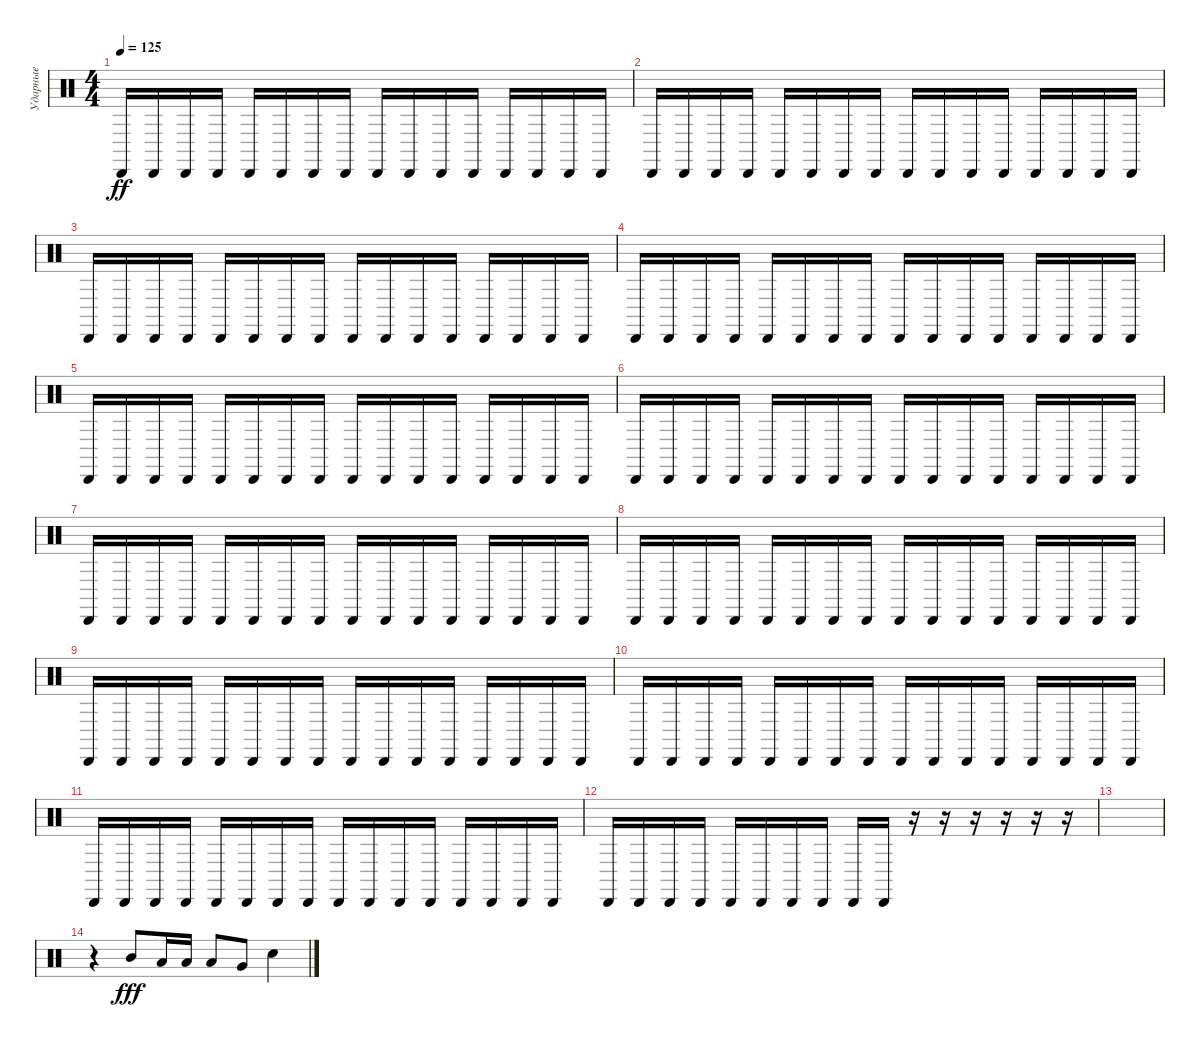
\track ("Ударные" "Ударные") {instrument percussion}
\staff {score}
\articulation defaults
\ts (4 4)
\tempo 125
\clef neutral
\ks c "Cabasa (hit)".16{dy ff} "Cabasa (hit)".16 "Cabasa (hit)".16 "Cabasa (hit)".16 "Cabasa (hit)".16 "Cabasa (hit)".16 "Cabasa (hit)".16 "Cabasa (hit)".16 "Cabasa (hit)".16 "Cabasa (hit)".16 "Cabasa (hit)".16 "Cabasa (hit)".16 "Cabasa (hit)".16 "Cabasa (hit)".16 "Cabasa (hit)".16 "Cabasa (hit)".16
|
"Cabasa (hit)".16 "Cabasa (hit)".16 "Cabasa (hit)".16 "Cabasa (hit)".16 "Cabasa (hit)".16 "Cabasa (hit)".16 "Cabasa (hit)".16 "Cabasa (hit)".16 "Cabasa (hit)".16 "Cabasa (hit)".16 "Cabasa (hit)".16 "Cabasa (hit)".16 "Cabasa (hit)".16 "Cabasa (hit)".16 "Cabasa (hit)".16 "Cabasa (hit)".16 |
"Cabasa (hit)".16 "Cabasa (hit)".16 "Cabasa (hit)".16 "Cabasa (hit)".16 "Cabasa (hit)".16 "Cabasa (hit)".16 "Cabasa (hit)".16 "Cabasa (hit)".16 "Cabasa (hit)".16 "Cabasa (hit)".16 "Cabasa (hit)".16 "Cabasa (hit)".16 "Cabasa (hit)".16 "Cabasa (hit)".16 "Cabasa (hit)".16 "Cabasa (hit)".16 |
"Cabasa (hit)".16 "Cabasa (hit)".16 "Cabasa (hit)".16 "Cabasa (hit)".16 "Cabasa (hit)".16 "Cabasa (hit)".16 "Cabasa (hit)".16 "Cabasa (hit)".16 "Cabasa (hit)".16 "Cabasa (hit)".16 "Cabasa (hit)".16 "Cabasa (hit)".16 "Cabasa (hit)".16 "Cabasa (hit)".16 "Cabasa (hit)".16 "Cabasa (hit)".16 |
"Cabasa (hit)".16 "Cabasa (hit)".16 "Cabasa (hit)".16 "Cabasa (hit)".16 "Cabasa (hit)".16 "Cabasa (hit)".16 "Cabasa (hit)".16 "Cabasa (hit)".16 "Cabasa (hit)".16 "Cabasa (hit)".16 "Cabasa (hit)".16 "Cabasa (hit)".16 "Cabasa (hit)".16 "Cabasa (hit)".16 "Cabasa (hit)".16 "Cabasa (hit)".16 |
"Cabasa (hit)".16 "Cabasa (hit)".16 "Cabasa (hit)".16 "Cabasa (hit)".16 "Cabasa (hit)".16 "Cabasa (hit)".16 "Cabasa (hit)".16 "Cabasa (hit)".16 "Cabasa (hit)".16 "Cabasa (hit)".16 "Cabasa (hit)".16 "Cabasa (hit)".16 "Cabasa (hit)".16 "Cabasa (hit)".16 "Cabasa (hit)".16 "Cabasa (hit)".16 |
"Cabasa (hit)".16 "Cabasa (hit)".16 "Cabasa (hit)".16 "Cabasa (hit)".16 "Cabasa (hit)".16 "Cabasa (hit)".16 "Cabasa (hit)".16 "Cabasa (hit)".16 "Cabasa (hit)".16 "Cabasa (hit)".16 "Cabasa (hit)".16 "Cabasa (hit)".16 "Cabasa (hit)".16 "Cabasa (hit)".16 "Cabasa (hit)".16 "Cabasa (hit)".16 |
"Cabasa (hit)".16 "Cabasa (hit)".16 "Cabasa (hit)".16 "Cabasa (hit)".16 "Cabasa (hit)".16 "Cabasa (hit)".16 "Cabasa (hit)".16 "Cabasa (hit)".16 "Cabasa (hit)".16 "Cabasa (hit)".16 "Cabasa (hit)".16 "Cabasa (hit)".16 "Cabasa (hit)".16 "Cabasa (hit)".16 "Cabasa (hit)".16 "Cabasa (hit)".16 |
"Cabasa (hit)".16 "Cabasa (hit)".16 "Cabasa (hit)".16 "Cabasa (hit)".16 "Cabasa (hit)".16 "Cabasa (hit)".16 "Cabasa (hit)".16 "Cabasa (hit)".16 "Cabasa (hit)".16 "Cabasa (hit)".16 "Cabasa (hit)".16 "Cabasa (hit)".16 "Cabasa (hit)".16 "Cabasa (hit)".16 "Cabasa (hit)".16 "Cabasa (hit)".16 |
"Cabasa (hit)".16 "Cabasa (hit)".16 "Cabasa (hit)".16 "Cabasa (hit)".16 "Cabasa (hit)".16 "Cabasa (hit)".16 "Cabasa (hit)".16 "Cabasa (hit)".16 "Cabasa (hit)".16 "Cabasa (hit)".16 "Cabasa (hit)".16 "Cabasa (hit)".16 "Cabasa (hit)".16 "Cabasa (hit)".16 "Cabasa (hit)".16 "Cabasa (hit)".16 |
"Cabasa (hit)".16 "Cabasa (hit)".16 "Cabasa (hit)".16 "Cabasa (hit)".16 "Cabasa (hit)".16 "Cabasa (hit)".16 "Cabasa (hit)".16 "Cabasa (hit)".16 "Cabasa (hit)".16 "Cabasa (hit)".16 "Cabasa (hit)".16 "Cabasa (hit)".16 "Cabasa (hit)".16 "Cabasa (hit)".16 "Cabasa (hit)".16 "Cabasa (hit)".16 |
"Cabasa (hit)".16 "Cabasa (hit)".16 "Cabasa (hit)".16 "Cabasa (hit)".16 "Cabasa (hit)".16 "Cabasa (hit)".16 "Cabasa (hit)".16 "Cabasa (hit)".16 "Cabasa (hit)".16 "Cabasa (hit)".16 r.16 r.16 r.16 r.16 r.16 r.16 |
|
r.4 "Mid Tom (hit)".8{dy fff} "Low Tom (hit)".16 "Low Tom (hit)".16 "Low Tom (hit)".8 "Very Low Tom (hit)".8 "Snare (hit) 2".4
